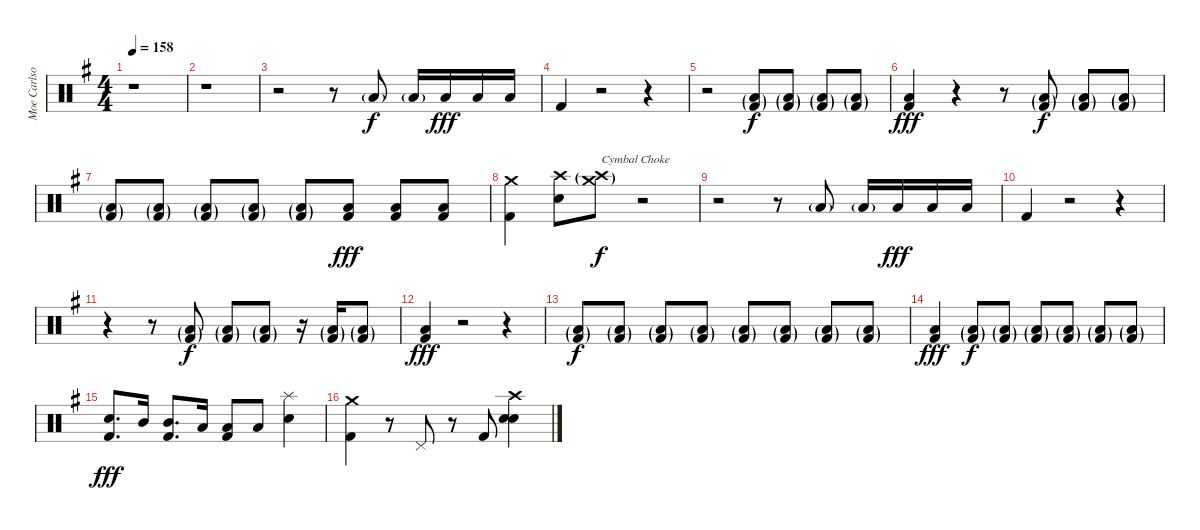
\track ("Moe Carlson" "Moe Carlso") {instrument percussion}
\staff {score}
\articulation defaults
\ts (4 4)
\tempo 158
\clef neutral
\ks g
r.1{dy fff} |
r.1 |
r.2 r.8 "Low Floor Tom (hit)"{g}.8{dy f} "Low Floor Tom (hit)"{g}.16 "Low Floor Tom (hit)".16{dy fff} "Low Floor Tom (hit)".16 "Low Floor Tom (hit)".16 |
"Kick (hit) 2".4 r.2 r.4 |
r.2 ("Low Floor Tom (hit)"{g} "Kick (hit) 2"{g}).8{dy f} ("Low Floor Tom (hit)"{g} "Kick (hit) 2"{g}).8 ("Low Floor Tom (hit)"{g} "Kick (hit) 2"{g}).8 ("Low Floor Tom (hit)"{g} "Kick (hit) 2"{g}).8 |
("Low Floor Tom (hit)" "Kick (hit) 2").4{dy fff} r.4 r.8 ("Low Floor Tom (hit)"{g} "Kick (hit) 2"{g}).8{dy f} ("Low Floor Tom (hit)"{g} "Kick (hit) 2"{g}).8 ("Low Floor Tom (hit)"{g} "Kick (hit) 2"{g}).8 |
("Low Floor Tom (hit)"{g} "Kick (hit) 2"{g}).8 ("Low Floor Tom (hit)"{g} "Kick (hit) 2"{g}).8 ("Low Floor Tom (hit)"{g} "Kick (hit) 2"{g}).8 ("Low Floor Tom (hit)"{g} "Kick (hit) 2"{g}).8 ("Low Floor Tom (hit)"{g} "Kick (hit) 2"{g}).8 ("Low Floor Tom (hit)" "Kick (hit) 2").8{dy fff} ("Low Floor Tom (hit)" "Kick (hit) 2").8 ("Low Floor Tom (hit)" "Kick (hit) 2").8 |
("Crash medium (hit)" "Kick (hit) 2").4 ("Crash high (hit)" "Electric Snare (hit)").8 ("Crash high (hit)"{g} "Crash medium (hit)"{g}).8{txt "Cymbal Choke" dy f volume 0} r.2 |
r.2{volume 16} r.8 "Low Floor Tom (hit)"{g}.8 "Low Floor Tom (hit)"{g}.16 "Low Floor Tom (hit)".16{dy fff} "Low Floor Tom (hit)".16 "Low Floor Tom (hit)".16 |
"Kick (hit) 2".4 r.2 r.4 |
r.4 r.8 ("Low Floor Tom (hit)"{g} "Kick (hit) 2"{g}).8{dy f} ("Low Floor Tom (hit)"{g} "Kick (hit) 2"{g}).8 ("Low Floor Tom (hit)"{g} "Kick (hit) 2"{g}).8 r.16 ("Low Floor Tom (hit)"{g} "Kick (hit) 2"{g}).16 ("Low Floor Tom (hit)"{g} "Kick (hit) 2"{g}).8 |
("Low Floor Tom (hit)" "Kick (hit) 2").4{dy fff} r.2 r.4 |
("Low Floor Tom (hit)"{g} "Kick (hit) 2"{g}).8{dy f} ("Low Floor Tom (hit)"{g} "Kick (hit) 2"{g}).8 ("Low Floor Tom (hit)"{g} "Kick (hit) 2"{g}).8 ("Low Floor Tom (hit)"{g} "Kick (hit) 2"{g}).8 ("Low Floor Tom (hit)"{g} "Kick (hit) 2"{g}).8 ("Low Floor Tom (hit)"{g} "Kick (hit) 2"{g}).8 ("Low Floor Tom (hit)"{g} "Kick (hit) 2"{g}).8 ("Low Floor Tom (hit)"{g} "Kick (hit) 2"{g}).8 |
("Low Floor Tom (hit)" "Kick (hit) 2").4{dy fff} ("Low Floor Tom (hit)"{g} "Kick (hit) 2"{g}).8{dy f} ("Low Floor Tom (hit)"{g} "Kick (hit) 2"{g}).8 ("Low Floor Tom (hit)"{g} "Kick (hit) 2"{g}).8 ("Low Floor Tom (hit)"{g} "Kick (hit) 2"{g}).8 ("Low Floor Tom (hit)"{g} "Kick (hit) 2"{g}).8 ("Low Floor Tom (hit)"{g} "Kick (hit) 2"{g}).8 |
("Electric Snare (hit)" "Kick (hit) 2").8{d dy fff} "Mid Tom (hit)".16 ("Mid Tom (hit)" "Kick (hit) 2").8{d} "Low Tom (hit)".16 ("Low Tom (hit)" "Kick (hit) 2").8 "Low Tom (hit)".8 ("Splash (hit)" "Electric Snare (hit)").4 |
("Crash medium (hit)" "Kick (hit) 2").4 r.8 "Pedal Hi-Hat (hit)".8 r.8 "Kick (hit) 2".8 ("Crash high (hit)" "Snare (hit) 2" "Electric Snare (hit)").4
